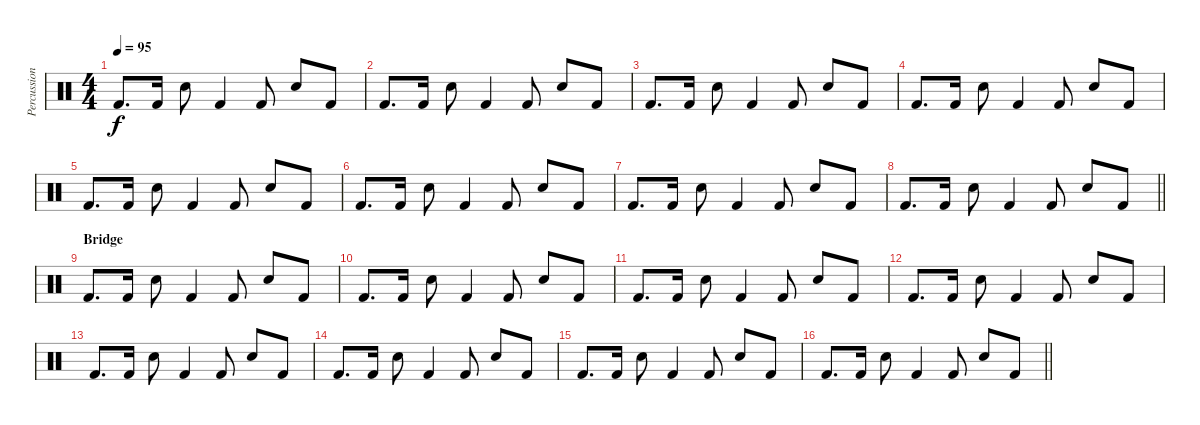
\track ("Percussioni" "Percussion") {instrument percussion}
\staff {score}
\articulation defaults
\ts (4 4)
\tempo 95
\clef neutral
\ks c "Kick (hit) 2".8{d dy f} "Kick (hit) 2".16 "Snare (hit) 2".8 "Kick (hit) 2".4 "Kick (hit) 2".8 "Snare (hit) 2".8 "Kick (hit) 2".8
|
"Kick (hit) 2".8{d} "Kick (hit) 2".16 "Snare (hit) 2".8 "Kick (hit) 2".4 "Kick (hit) 2".8 "Snare (hit) 2".8 "Kick (hit) 2".8 |
"Kick (hit) 2".8{d} "Kick (hit) 2".16 "Snare (hit) 2".8 "Kick (hit) 2".4 "Kick (hit) 2".8 "Snare (hit) 2".8 "Kick (hit) 2".8 |
"Kick (hit) 2".8{d} "Kick (hit) 2".16 "Snare (hit) 2".8 "Kick (hit) 2".4 "Kick (hit) 2".8 "Snare (hit) 2".8 "Kick (hit) 2".8 |
"Kick (hit) 2".8{d} "Kick (hit) 2".16 "Snare (hit) 2".8 "Kick (hit) 2".4 "Kick (hit) 2".8 "Snare (hit) 2".8 "Kick (hit) 2".8 |
"Kick (hit) 2".8{d} "Kick (hit) 2".16 "Snare (hit) 2".8 "Kick (hit) 2".4 "Kick (hit) 2".8 "Snare (hit) 2".8 "Kick (hit) 2".8 |
"Kick (hit) 2".8{d} "Kick (hit) 2".16 "Snare (hit) 2".8 "Kick (hit) 2".4 "Kick (hit) 2".8 "Snare (hit) 2".8 "Kick (hit) 2".8 |
\barLineRight lightlight "Kick (hit) 2".8{d} "Kick (hit) 2".16 "Snare (hit) 2".8 "Kick (hit) 2".4 "Kick (hit) 2".8 "Snare (hit) 2".8 "Kick (hit) 2".8
|
\section ("" "Bridge")
"Kick (hit) 2".8{d} "Kick (hit) 2".16 "Snare (hit) 2".8 "Kick (hit) 2".4 "Kick (hit) 2".8 "Snare (hit) 2".8 "Kick (hit) 2".8 |
"Kick (hit) 2".8{d} "Kick (hit) 2".16 "Snare (hit) 2".8 "Kick (hit) 2".4 "Kick (hit) 2".8 "Snare (hit) 2".8 "Kick (hit) 2".8 |
"Kick (hit) 2".8{d} "Kick (hit) 2".16 "Snare (hit) 2".8 "Kick (hit) 2".4 "Kick (hit) 2".8 "Snare (hit) 2".8 "Kick (hit) 2".8 |
"Kick (hit) 2".8{d} "Kick (hit) 2".16 "Snare (hit) 2".8 "Kick (hit) 2".4 "Kick (hit) 2".8 "Snare (hit) 2".8 "Kick (hit) 2".8 |
"Kick (hit) 2".8{d} "Kick (hit) 2".16 "Snare (hit) 2".8 "Kick (hit) 2".4 "Kick (hit) 2".8 "Snare (hit) 2".8 "Kick (hit) 2".8 |
"Kick (hit) 2".8{d} "Kick (hit) 2".16 "Snare (hit) 2".8 "Kick (hit) 2".4 "Kick (hit) 2".8 "Snare (hit) 2".8 "Kick (hit) 2".8 |
"Kick (hit) 2".8{d} "Kick (hit) 2".16 "Snare (hit) 2".8 "Kick (hit) 2".4 "Kick (hit) 2".8 "Snare (hit) 2".8 "Kick (hit) 2".8 |
\barLineRight lightlight "Kick (hit) 2".8{d} "Kick (hit) 2".16 "Snare (hit) 2".8 "Kick (hit) 2".4 "Kick (hit) 2".8 "Snare (hit) 2".8 "Kick (hit) 2".8
